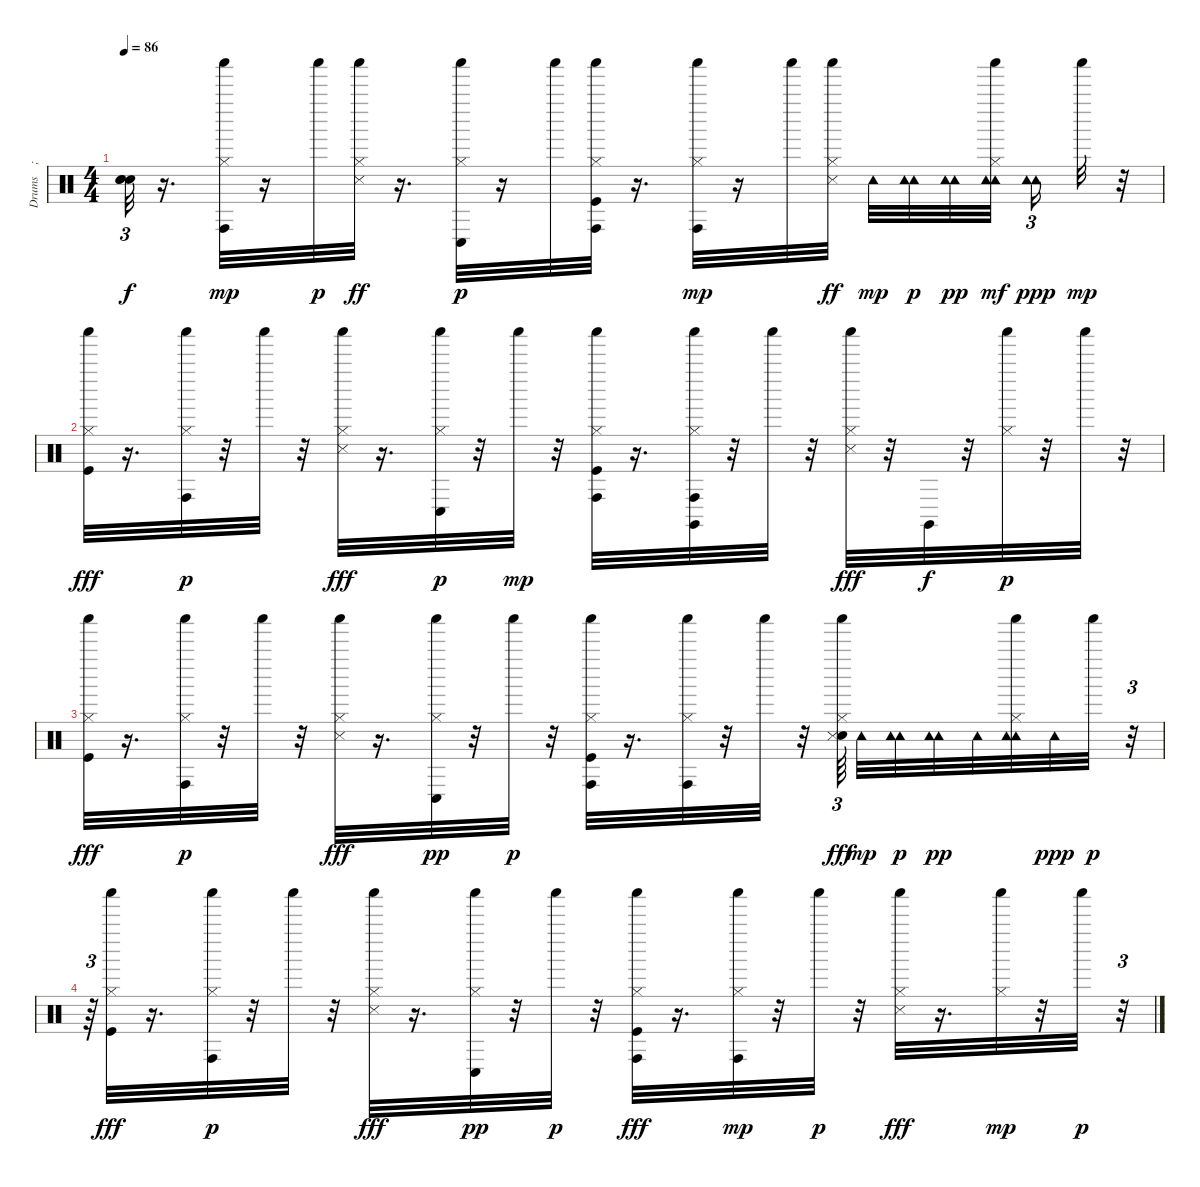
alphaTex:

\track ("Drums    ; Standard" "Drums    ;") {instrument percussion}
\staff {score}
\articulation defaults
\ts (4 4)
\tempo 86
\clef neutral
\ks c
("Snare (hit)"{t} "Snare (hit)"{t} "Snare (hit)"{t}).32{tu (3 2) dy f} r.16{d} ("Shaker (hit)" "Hi-Hat (closed)" "Conga high (hit)").32{dy mp} r.16 "Shaker (hit)".32{dy p} ("Snare (side stick) 3" "Shaker (hit)" "Hi-Hat (closed)").32{dy ff} r.16{d} ("Conga low (hit)" "Shaker (hit)" "Hi-Hat (closed)").32{dy p} r.16 "Shaker (hit)".32 ("Kick (hit)" "Shaker (hit)" "Hi-Hat (closed)" "Conga high (hit)").32 r.16{d} ("Shaker (hit)" "Hi-Hat (closed)" "Conga high (hit)").32{dy mp} r.16 "Shaker (hit)".32 ("Shaker (hit)" "Snare (side stick) 3" "Hi-Hat (closed)").32{dy ff} "Tambourine (hit)".32{dy mp} ("Tambourine (hit)" "Tambourine (hit)").32{dy p} ("Tambourine (hit)" "Tambourine (hit)").32{dy pp} ("Tambourine (hit)" "Tambourine (hit)" "Shaker (hit)" "Hi-Hat (closed)").32{dy mf} ("Tambourine (hit)" "Tambourine (hit)").16{tu (3 2) dy ppp} "Shaker (hit)".32{dy mp} r.32 |
("Kick (hit)" "Shaker (hit)" "Hi-Hat (closed)").32{dy fff} r.16{d} ("Shaker (hit)" "Hi-Hat (closed)" "Conga high (hit)").32{dy p} r.32 "Shaker (hit)".32 r.32 ("Snare (side stick) 3" "Shaker (hit)" "Hi-Hat (closed)").32{dy fff} r.16{d} ("Shaker (hit)" "Hi-Hat (closed)" "Conga low (hit)").32{dy p} r.32 "Shaker (hit)".32{dy mp} r.32 ("Kick (hit)" "Shaker (hit)" "Hi-Hat (closed)" "Conga high (hit)").32 r.16{d} ("Hi-Hat (closed)" "Shaker (hit)" "Claves (hit)" "Conga high (hit)").32 r.32 "Shaker (hit)".32 r.32 ("Shaker (hit)" "Snare (side stick) 3" "Hi-Hat (closed)").32{dy fff} r.32 "Claves (hit)".32{dy f} r.32 ("Shaker (hit)" "Hi-Hat (closed)").32{dy p} r.32 "Shaker (hit)".32 r.32 |
("Shaker (hit)" "Kick (hit)" "Hi-Hat (closed)").32{dy fff} r.16{d} ("Shaker (hit)" "Hi-Hat (closed)" "Conga high (hit)").32{dy p} r.32 "Shaker (hit)".32 r.32 ("Shaker (hit)" "Hi-Hat (closed)" "Snare (side stick) 3").32{dy fff} r.16{d} ("Hi-Hat (closed)" "Shaker (hit)" "Conga low (hit)").32{dy pp} r.32 "Shaker (hit)".32{dy p} r.32 ("Kick (hit)" "Hi-Hat (closed)" "Shaker (hit)" "Conga high (hit)").32 r.16{d} ("Shaker (hit)" "Conga high (hit)" "Hi-Hat (closed)").32 r.32 "Shaker (hit)".32 r.32 ("Shaker (hit)" "Electric Snare (hit)" "Snare (side stick) 3" "Hi-Hat (closed)").64{tu (3 2) dy fff} "Tambourine (hit)".32{dy mp} ("Tambourine (hit)" "Tambourine (hit)").32{dy p} ("Tambourine (hit)" "Tambourine (hit)").32{dy pp} "Tambourine (hit)".32 ("Tambourine (hit)" "Shaker (hit)" "Hi-Hat (closed)" "Tambourine (hit)").32 "Tambourine (hit)".32{dy ppp} "Shaker (hit)".32{dy p} r.32{tu (3 2)} |
r.64{tu (3 2)} ("Kick (hit)" "Shaker (hit)" "Hi-Hat (closed)").32{dy fff} r.16{d} ("Shaker (hit)" "Hi-Hat (closed)" "Conga high (hit)").32{dy p} r.32 "Shaker (hit)".32 r.32 ("Shaker (hit)" "Hi-Hat (closed)" "Snare (side stick) 3").32{dy fff} r.16{d} ("Shaker (hit)" "Hi-Hat (closed)" "Conga low (hit)").32{dy pp} r.32 "Shaker (hit)".32{dy p} r.32 ("Kick (hit)" "Shaker (hit)" "Conga high (hit)" "Hi-Hat (closed)").32{dy fff} r.16{d} ("Conga high (hit)" "Shaker (hit)" "Hi-Hat (closed)").32{dy mp} r.32 "Shaker (hit)".32{dy p} r.32 ("Snare (side stick) 3" "Shaker (hit)" "Hi-Hat (closed)").32{dy fff} r.16{d} ("Shaker (hit)" "Hi-Hat (closed)").32{dy mp} r.32 "Shaker (hit)".32{dy p} r.32{tu (3 2)}
